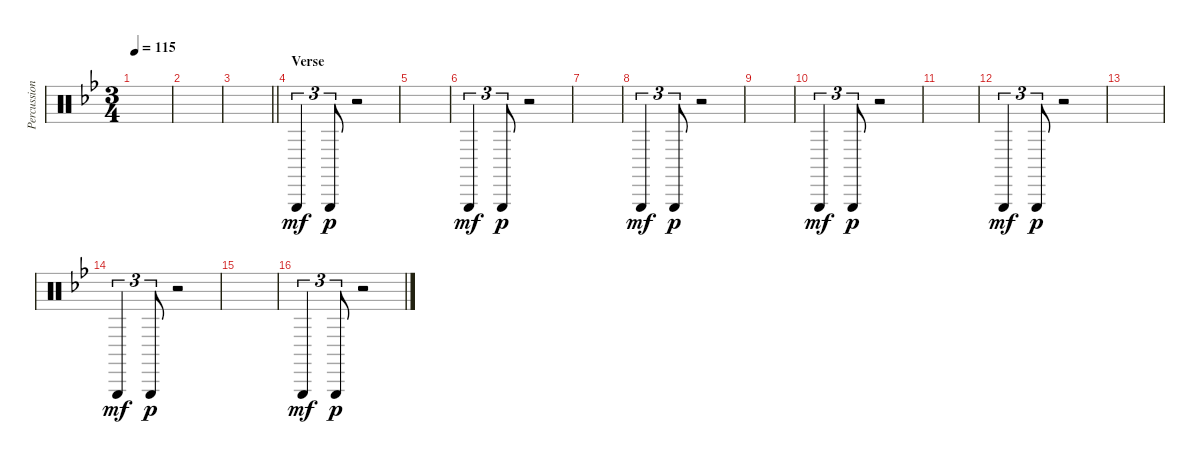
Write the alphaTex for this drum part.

\track ("Percussion" "Percussion") {instrument percussion}
\staff {score}
\articulation defaults
\ts (3 4)
\tempo 115
\clef neutral
\ks gminor
|
|
\barLineRight lightlight
|
\section ("" "Verse")
"Triangle (hit)".4{tu (3 2) dy mf} "Triangle (hit)".8{tu (3 2) dy p} r.2 |
|
"Triangle (hit)".4{tu (3 2) dy mf} "Triangle (hit)".8{tu (3 2) dy p} r.2 |
|
"Triangle (hit)".4{tu (3 2) dy mf} "Triangle (hit)".8{tu (3 2) dy p} r.2 |
|
"Triangle (hit)".4{tu (3 2) dy mf} "Triangle (hit)".8{tu (3 2) dy p} r.2 |
|
"Triangle (hit)".4{tu (3 2) dy mf} "Triangle (hit)".8{tu (3 2) dy p} r.2 |
|
"Triangle (hit)".4{tu (3 2) dy mf} "Triangle (hit)".8{tu (3 2) dy p} r.2 |
|
"Triangle (hit)".4{tu (3 2) dy mf} "Triangle (hit)".8{tu (3 2) dy p} r.2
